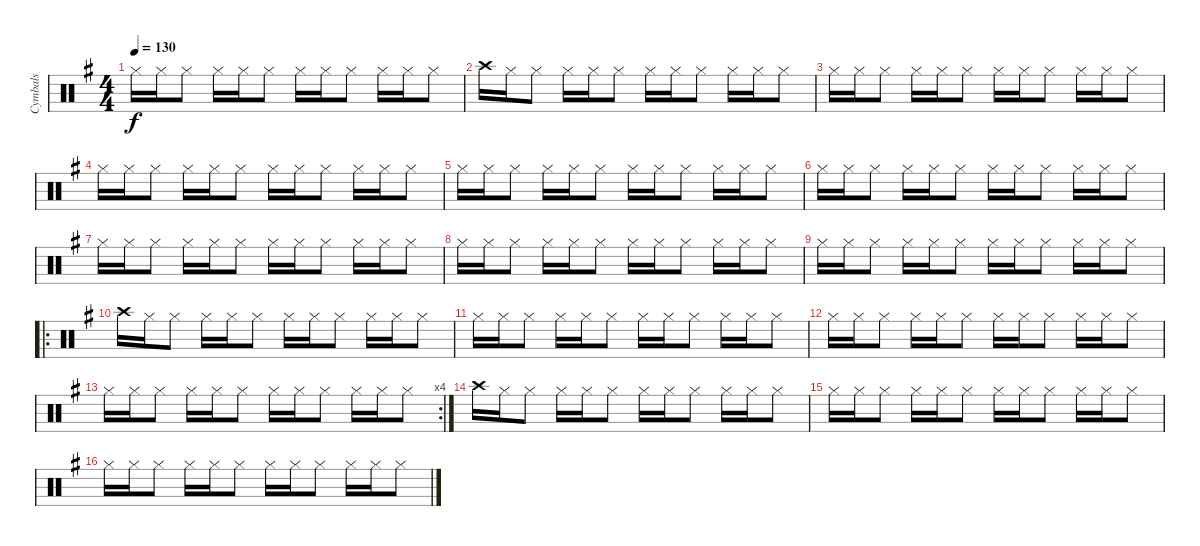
\track ("Cymbals" "Cymbals") {instrument percussion}
\staff {score}
\articulation defaults
\ts (4 4)
\tempo 130
\clef neutral
\ks g "Hi-Hat (closed)".16{dy f} "Hi-Hat (closed)".16 "Hi-Hat (closed)".8 "Hi-Hat (closed)".16 "Hi-Hat (closed)".16 "Hi-Hat (closed)".8 "Hi-Hat (closed)".16 "Hi-Hat (closed)".16 "Hi-Hat (closed)".8 "Hi-Hat (closed)".16 "Hi-Hat (closed)".16 "Hi-Hat (closed)".8
|
"Crash high (hit)".16 "Hi-Hat (closed)".16 "Hi-Hat (closed)".8 "Hi-Hat (closed)".16 "Hi-Hat (closed)".16 "Hi-Hat (closed)".8 "Hi-Hat (closed)".16 "Hi-Hat (closed)".16 "Hi-Hat (closed)".8 "Hi-Hat (closed)".16 "Hi-Hat (closed)".16 "Hi-Hat (closed)".8 |
"Hi-Hat (closed)".16 "Hi-Hat (closed)".16 "Hi-Hat (closed)".8 "Hi-Hat (closed)".16 "Hi-Hat (closed)".16 "Hi-Hat (closed)".8 "Hi-Hat (closed)".16 "Hi-Hat (closed)".16 "Hi-Hat (closed)".8 "Hi-Hat (closed)".16 "Hi-Hat (closed)".16 "Hi-Hat (closed)".8 |
"Hi-Hat (closed)".16 "Hi-Hat (closed)".16 "Hi-Hat (closed)".8 "Hi-Hat (closed)".16 "Hi-Hat (closed)".16 "Hi-Hat (closed)".8 "Hi-Hat (closed)".16 "Hi-Hat (closed)".16 "Hi-Hat (closed)".8 "Hi-Hat (closed)".16 "Hi-Hat (closed)".16 "Hi-Hat (closed)".8 |
"Hi-Hat (closed)".16 "Hi-Hat (closed)".16 "Hi-Hat (closed)".8 "Hi-Hat (closed)".16 "Hi-Hat (closed)".16 "Hi-Hat (closed)".8 "Hi-Hat (closed)".16 "Hi-Hat (closed)".16 "Hi-Hat (closed)".8 "Hi-Hat (closed)".16 "Hi-Hat (closed)".16 "Hi-Hat (closed)".8 |
"Hi-Hat (closed)".16 "Hi-Hat (closed)".16 "Hi-Hat (closed)".8 "Hi-Hat (closed)".16 "Hi-Hat (closed)".16 "Hi-Hat (closed)".8 "Hi-Hat (closed)".16 "Hi-Hat (closed)".16 "Hi-Hat (closed)".8 "Hi-Hat (closed)".16 "Hi-Hat (closed)".16 "Hi-Hat (closed)".8 |
"Hi-Hat (closed)".16 "Hi-Hat (closed)".16 "Hi-Hat (closed)".8 "Hi-Hat (closed)".16 "Hi-Hat (closed)".16 "Hi-Hat (closed)".8 "Hi-Hat (closed)".16 "Hi-Hat (closed)".16 "Hi-Hat (closed)".8 "Hi-Hat (closed)".16 "Hi-Hat (closed)".16 "Hi-Hat (closed)".8 |
"Hi-Hat (closed)".16 "Hi-Hat (closed)".16 "Hi-Hat (closed)".8 "Hi-Hat (closed)".16 "Hi-Hat (closed)".16 "Hi-Hat (closed)".8 "Hi-Hat (closed)".16 "Hi-Hat (closed)".16 "Hi-Hat (closed)".8 "Hi-Hat (closed)".16 "Hi-Hat (closed)".16 "Hi-Hat (closed)".8 |
"Hi-Hat (closed)".16 "Hi-Hat (closed)".16 "Hi-Hat (closed)".8 "Hi-Hat (closed)".16 "Hi-Hat (closed)".16 "Hi-Hat (closed)".8 "Hi-Hat (closed)".16 "Hi-Hat (closed)".16 "Hi-Hat (closed)".8 "Hi-Hat (closed)".16 "Hi-Hat (closed)".16 "Hi-Hat (closed)".8 |
\ro "Crash high (hit)".16 "Hi-Hat (closed)".16 "Hi-Hat (closed)".8 "Hi-Hat (closed)".16 "Hi-Hat (closed)".16 "Hi-Hat (closed)".8 "Hi-Hat (closed)".16 "Hi-Hat (closed)".16 "Hi-Hat (closed)".8 "Hi-Hat (closed)".16 "Hi-Hat (closed)".16 "Hi-Hat (closed)".8
|
"Hi-Hat (closed)".16 "Hi-Hat (closed)".16 "Hi-Hat (closed)".8 "Hi-Hat (closed)".16 "Hi-Hat (closed)".16 "Hi-Hat (closed)".8 "Hi-Hat (closed)".16 "Hi-Hat (closed)".16 "Hi-Hat (closed)".8 "Hi-Hat (closed)".16 "Hi-Hat (closed)".16 "Hi-Hat (closed)".8 |
"Hi-Hat (closed)".16 "Hi-Hat (closed)".16 "Hi-Hat (closed)".8 "Hi-Hat (closed)".16 "Hi-Hat (closed)".16 "Hi-Hat (closed)".8 "Hi-Hat (closed)".16 "Hi-Hat (closed)".16 "Hi-Hat (closed)".8 "Hi-Hat (closed)".16 "Hi-Hat (closed)".16 "Hi-Hat (closed)".8 |
\rc 4 "Hi-Hat (closed)".16 "Hi-Hat (closed)".16 "Hi-Hat (closed)".8 "Hi-Hat (closed)".16 "Hi-Hat (closed)".16 "Hi-Hat (closed)".8 "Hi-Hat (closed)".16 "Hi-Hat (closed)".16 "Hi-Hat (closed)".8 "Hi-Hat (closed)".16 "Hi-Hat (closed)".16 "Hi-Hat (closed)".8
|
"Crash high (hit)".16 "Hi-Hat (closed)".16 "Hi-Hat (closed)".8 "Hi-Hat (closed)".16 "Hi-Hat (closed)".16 "Hi-Hat (closed)".8 "Hi-Hat (closed)".16 "Hi-Hat (closed)".16 "Hi-Hat (closed)".8 "Hi-Hat (closed)".16 "Hi-Hat (closed)".16 "Hi-Hat (closed)".8 |
"Hi-Hat (closed)".16 "Hi-Hat (closed)".16 "Hi-Hat (closed)".8 "Hi-Hat (closed)".16 "Hi-Hat (closed)".16 "Hi-Hat (closed)".8 "Hi-Hat (closed)".16 "Hi-Hat (closed)".16 "Hi-Hat (closed)".8 "Hi-Hat (closed)".16 "Hi-Hat (closed)".16 "Hi-Hat (closed)".8 |
"Hi-Hat (closed)".16 "Hi-Hat (closed)".16 "Hi-Hat (closed)".8 "Hi-Hat (closed)".16 "Hi-Hat (closed)".16 "Hi-Hat (closed)".8 "Hi-Hat (closed)".16 "Hi-Hat (closed)".16 "Hi-Hat (closed)".8 "Hi-Hat (closed)".16 "Hi-Hat (closed)".16 "Hi-Hat (closed)".8
